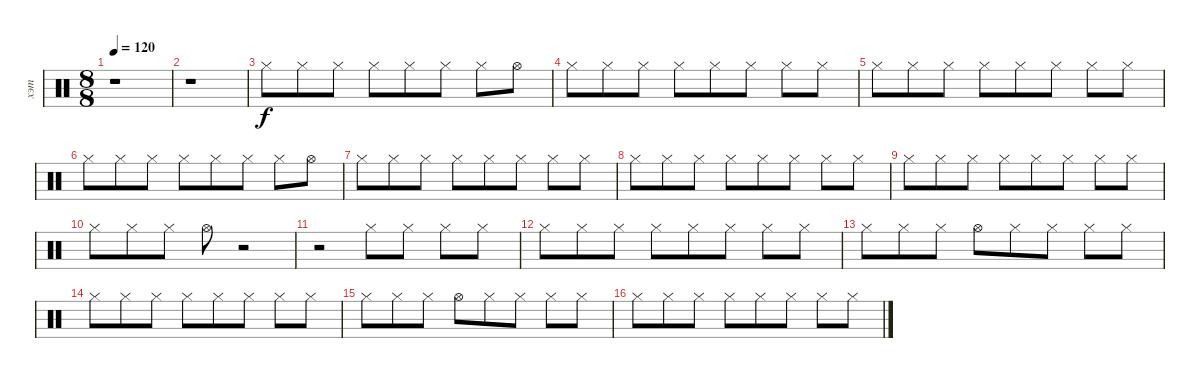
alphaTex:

\track ("хэт" "хэт") {instrument percussion}
\staff {score}
\articulation defaults
\ts (8 8)
\tempo 120
\clef neutral
\ks c
r.1{dy f} |
r.1 |
"Hi-Hat (closed)".8 "Hi-Hat (closed)".8 "Hi-Hat (closed)".8 "Hi-Hat (closed)".8 "Hi-Hat (closed)".8 "Hi-Hat (closed)".8 "Hi-Hat (closed)".8 "Hi-Hat (open)".8 |
"Hi-Hat (closed)".8 "Hi-Hat (closed)".8 "Hi-Hat (closed)".8 "Hi-Hat (closed)".8 "Hi-Hat (closed)".8 "Hi-Hat (closed)".8 "Hi-Hat (closed)".8 "Hi-Hat (closed)".8 |
"Hi-Hat (closed)".8 "Hi-Hat (closed)".8 "Hi-Hat (closed)".8 "Hi-Hat (closed)".8 "Hi-Hat (closed)".8 "Hi-Hat (closed)".8 "Hi-Hat (closed)".8 "Hi-Hat (closed)".8 |
"Hi-Hat (closed)".8 "Hi-Hat (closed)".8 "Hi-Hat (closed)".8 "Hi-Hat (closed)".8 "Hi-Hat (closed)".8 "Hi-Hat (closed)".8 "Hi-Hat (closed)".8 "Hi-Hat (open)".8 |
"Hi-Hat (closed)".8 "Hi-Hat (closed)".8 "Hi-Hat (closed)".8 "Hi-Hat (closed)".8 "Hi-Hat (closed)".8 "Hi-Hat (closed)".8 "Hi-Hat (closed)".8 "Hi-Hat (closed)".8 |
"Hi-Hat (closed)".8 "Hi-Hat (closed)".8 "Hi-Hat (closed)".8 "Hi-Hat (closed)".8 "Hi-Hat (closed)".8 "Hi-Hat (closed)".8 "Hi-Hat (closed)".8 "Hi-Hat (closed)".8 |
"Hi-Hat (closed)".8 "Hi-Hat (closed)".8 "Hi-Hat (closed)".8 "Hi-Hat (closed)".8 "Hi-Hat (closed)".8 "Hi-Hat (closed)".8 "Hi-Hat (closed)".8 "Hi-Hat (closed)".8 |
"Hi-Hat (closed)".8 "Hi-Hat (closed)".8 "Hi-Hat (closed)".8 "Hi-Hat (open)".8 r.2 |
r.2 "Hi-Hat (closed)".8 "Hi-Hat (closed)".8 "Hi-Hat (closed)".8 "Hi-Hat (closed)".8 |
"Hi-Hat (closed)".8 "Hi-Hat (closed)".8 "Hi-Hat (closed)".8 "Hi-Hat (closed)".8 "Hi-Hat (closed)".8 "Hi-Hat (closed)".8 "Hi-Hat (closed)".8 "Hi-Hat (closed)".8 |
"Hi-Hat (closed)".8 "Hi-Hat (closed)".8 "Hi-Hat (closed)".8 "Hi-Hat (open)".8 "Hi-Hat (closed)".8 "Hi-Hat (closed)".8 "Hi-Hat (closed)".8 "Hi-Hat (closed)".8 |
"Hi-Hat (closed)".8 "Hi-Hat (closed)".8 "Hi-Hat (closed)".8 "Hi-Hat (closed)".8 "Hi-Hat (closed)".8 "Hi-Hat (closed)".8 "Hi-Hat (closed)".8 "Hi-Hat (closed)".8 |
"Hi-Hat (closed)".8 "Hi-Hat (closed)".8 "Hi-Hat (closed)".8 "Hi-Hat (open)".8 "Hi-Hat (closed)".8 "Hi-Hat (closed)".8 "Hi-Hat (closed)".8 "Hi-Hat (closed)".8 |
"Hi-Hat (closed)".8 "Hi-Hat (closed)".8 "Hi-Hat (closed)".8 "Hi-Hat (closed)".8 "Hi-Hat (closed)".8 "Hi-Hat (closed)".8 "Hi-Hat (closed)".8 "Hi-Hat (closed)".8
